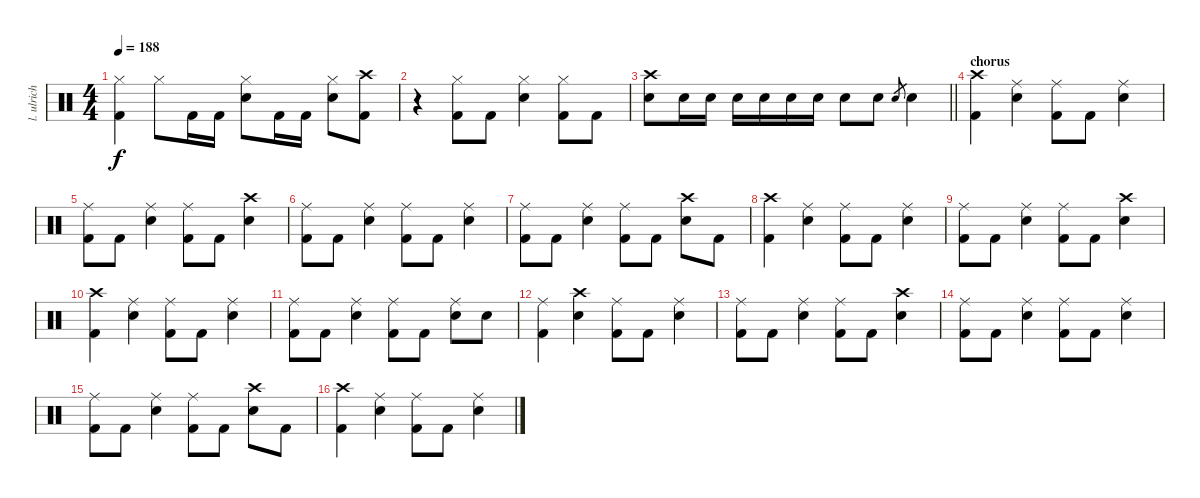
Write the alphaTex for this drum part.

\track ("l. ulrich - drums" "l. ulrich ") {instrument percussion}
\staff {score}
\articulation defaults
\ts (4 4)
\tempo 188
\clef neutral
\ks c
("Hi-Hat (closed)" "Kick (hit) 2").4{dy f} "Hi-Hat (closed)".8 "Kick (hit) 2".16 "Kick (hit) 2".16 ("Hi-Hat (closed)" "Snare (hit) 2").8 "Kick (hit) 2".16 "Kick (hit) 2".16 ("Hi-Hat (closed)" "Snare (hit) 2").8 ("Crash high (hit)" "Kick (hit) 2").8 |
r.4 ("Hi-Hat (closed)" "Kick (hit) 2").8 "Kick (hit) 2".8 ("Hi-Hat (closed)" "Snare (hit) 2").4 ("Hi-Hat (closed)" "Kick (hit) 2").8 "Kick (hit) 2".8 |
\barLineRight lightlight
("Crash high (hit)" "Snare (hit) 2").8 "Snare (hit) 2".16 "Snare (hit) 2".16 "Snare (hit) 2".16 "Snare (hit) 2".16 "Snare (hit) 2".16 "Snare (hit) 2".16 "Snare (hit) 2".8 "Snare (hit) 2".8 "Snare (hit) 2".8{gr} "Snare (hit) 2".4 |
\section ("" "chorus")
("Crash high (hit)" "Kick (hit) 2").4 ("Ride (middle)" "Snare (hit) 2").4 ("Ride (middle)" "Kick (hit) 2").8 "Kick (hit) 2".8 ("Ride (middle)" "Snare (hit) 2").4 |
("Ride (middle)" "Kick (hit) 2").8 "Kick (hit) 2".8 ("Ride (middle)" "Snare (hit) 2").4 ("Ride (middle)" "Kick (hit) 2").8 "Kick (hit) 2".8 ("Crash high (hit)" "Snare (hit) 2").4 |
("Ride (middle)" "Kick (hit) 2").8 "Kick (hit) 2".8 ("Ride (middle)" "Snare (hit) 2").4 ("Ride (middle)" "Kick (hit) 2").8 "Kick (hit) 2".8 ("Ride (middle)" "Snare (hit) 2").4 |
("Ride (middle)" "Kick (hit) 2").8 "Kick (hit) 2".8 ("Ride (middle)" "Snare (hit) 2").4 ("Ride (middle)" "Kick (hit) 2").8 "Kick (hit) 2".8 ("Crash high (hit)" "Snare (hit) 2").8 "Kick (hit) 2".8 |
("Crash high (hit)" "Kick (hit) 2").4 ("Ride (middle)" "Snare (hit) 2").4 ("Ride (middle)" "Kick (hit) 2").8 "Kick (hit) 2".8 ("Ride (middle)" "Snare (hit) 2").4 |
("Ride (middle)" "Kick (hit) 2").8 "Kick (hit) 2".8 ("Ride (middle)" "Snare (hit) 2").4 ("Ride (middle)" "Kick (hit) 2").8 "Kick (hit) 2".8 ("Crash high (hit)" "Snare (hit) 2").4 |
("Crash high (hit)" "Kick (hit) 2").4 ("Ride (middle)" "Snare (hit) 2").4 ("Ride (middle)" "Kick (hit) 2").8 "Kick (hit) 2".8 ("Ride (middle)" "Snare (hit) 2").4 |
("Ride (middle)" "Kick (hit) 2").8 "Kick (hit) 2".8 ("Ride (middle)" "Snare (hit) 2").4 ("Ride (middle)" "Kick (hit) 2").8 "Kick (hit) 2".8 ("Ride (middle)" "Snare (hit) 2").8 "Snare (hit) 2".8 |
("Ride (middle)" "Kick (hit) 2").4 ("Crash high (hit)" "Snare (hit) 2").4 ("Ride (middle)" "Kick (hit) 2").8 "Kick (hit) 2".8 ("Ride (middle)" "Snare (hit) 2").4 |
("Ride (middle)" "Kick (hit) 2").8 "Kick (hit) 2".8 ("Ride (middle)" "Snare (hit) 2").4 ("Ride (middle)" "Kick (hit) 2").8 "Kick (hit) 2".8 ("Crash high (hit)" "Snare (hit) 2").4 |
("Ride (middle)" "Kick (hit) 2").8 "Kick (hit) 2".8 ("Ride (middle)" "Snare (hit) 2").4 ("Ride (middle)" "Kick (hit) 2").8 "Kick (hit) 2".8 ("Ride (middle)" "Snare (hit) 2").4 |
("Ride (middle)" "Kick (hit) 2").8 "Kick (hit) 2".8 ("Ride (middle)" "Snare (hit) 2").4 ("Ride (middle)" "Kick (hit) 2").8 "Kick (hit) 2".8 ("Crash high (hit)" "Snare (hit) 2").8 "Kick (hit) 2".8 |
("Crash high (hit)" "Kick (hit) 2").4 ("Ride (middle)" "Snare (hit) 2").4 ("Ride (middle)" "Kick (hit) 2").8 "Kick (hit) 2".8 ("Ride (middle)" "Snare (hit) 2").4
